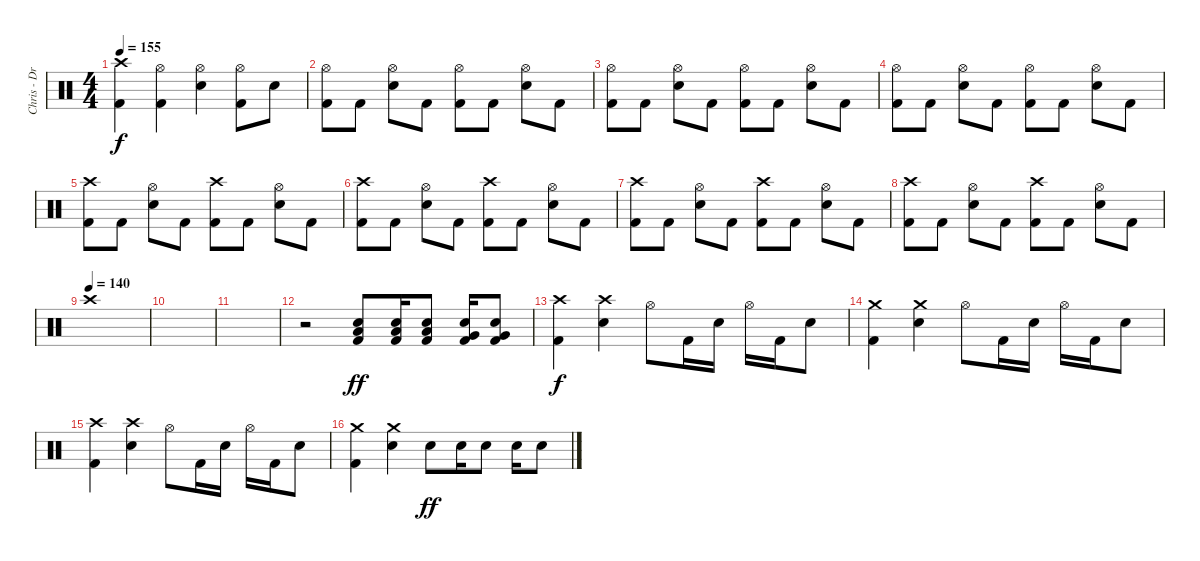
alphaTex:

\track ("Chris - Drums" "Chris - Dr") {instrument percussion}
\staff {score}
\articulation defaults
\ts (4 4)
\tempo 155
\clef neutral
\ks c
("Crash high (hit)" "Kick (hit) 2").4{dy f} ("Hi-Hat (open)" "Kick (hit) 2").4 ("Hi-Hat (open)" "Electric Snare (hit)").4 ("Hi-Hat (open)" "Kick (hit) 2").8 "Electric Snare (hit)".8 |
("Hi-Hat (open)" "Kick (hit) 2").8 "Kick (hit) 2".8 ("Hi-Hat (open)" "Electric Snare (hit)").8 "Kick (hit) 2".8 ("Hi-Hat (open)" "Kick (hit) 2").8 "Kick (hit) 2".8 ("Hi-Hat (open)" "Electric Snare (hit)").8 "Kick (hit) 2".8 |
("Hi-Hat (open)" "Kick (hit) 2").8 "Kick (hit) 2".8 ("Hi-Hat (open)" "Electric Snare (hit)").8 "Kick (hit) 2".8 ("Hi-Hat (open)" "Kick (hit) 2").8 "Kick (hit) 2".8 ("Hi-Hat (open)" "Electric Snare (hit)").8 "Kick (hit) 2".8 |
("Hi-Hat (open)" "Kick (hit) 2").8 "Kick (hit) 2".8 ("Hi-Hat (open)" "Electric Snare (hit)").8 "Kick (hit) 2".8 ("Hi-Hat (open)" "Kick (hit) 2").8 "Kick (hit) 2".8 ("Hi-Hat (open)" "Electric Snare (hit)").8 "Kick (hit) 2".8 |
("Crash high (hit)" "Kick (hit) 2").8 "Kick (hit) 2".8 ("Hi-Hat (open)" "Electric Snare (hit)").8 "Kick (hit) 2".8 ("Crash high (hit)" "Kick (hit) 2").8 "Kick (hit) 2".8 ("Hi-Hat (open)" "Electric Snare (hit)").8 "Kick (hit) 2".8 |
("Crash high (hit)" "Kick (hit) 2").8 "Kick (hit) 2".8 ("Hi-Hat (open)" "Electric Snare (hit)").8 "Kick (hit) 2".8 ("Crash high (hit)" "Kick (hit) 2").8 "Kick (hit) 2".8 ("Hi-Hat (open)" "Electric Snare (hit)").8 "Kick (hit) 2".8 |
("Crash high (hit)" "Kick (hit) 2").8 "Kick (hit) 2".8 ("Hi-Hat (open)" "Electric Snare (hit)").8 "Kick (hit) 2".8 ("Crash high (hit)" "Kick (hit) 2").8 "Kick (hit) 2".8 ("Hi-Hat (open)" "Electric Snare (hit)").8 "Kick (hit) 2".8 |
("Crash high (hit)" "Kick (hit) 2").8 "Kick (hit) 2".8 ("Hi-Hat (open)" "Electric Snare (hit)").8 "Kick (hit) 2".8 ("Crash high (hit)" "Kick (hit) 2").8 "Kick (hit) 2".8 ("Hi-Hat (open)" "Electric Snare (hit)").8 "Kick (hit) 2".8 |
\tempo (140)
"Crash high (hit)".1 |
|
|
r.2 ("Low Tom (hit)" "Electric Snare (hit)" "Kick (hit) 2").8{dy ff} ("Low Tom (hit)" "Electric Snare (hit)" "Kick (hit) 2").16 ("Low Tom (hit)" "Electric Snare (hit)" "Kick (hit) 2").8 ("Very Low Tom (hit)" "Electric Snare (hit)" "Kick (hit) 2").16 ("Very Low Tom (hit)" "Electric Snare (hit)" "Kick (hit) 2").8 |
("Crash high (hit)" "Kick (hit) 2").4{dy f} ("Crash high (hit)" "Electric Snare (hit)").4 "Hi-Hat (open)".8 "Kick (hit) 2".16 "Electric Snare (hit)".16 "Hi-Hat (open)".16 "Kick (hit) 2".16 "Electric Snare (hit)".8 |
("Crash medium (hit)" "Kick (hit) 2").4 ("Crash medium (hit)" "Electric Snare (hit)").4 "Hi-Hat (open)".8 "Kick (hit) 2".16 "Electric Snare (hit)".16 "Hi-Hat (open)".16 "Kick (hit) 2".16 "Electric Snare (hit)".8 |
("Crash high (hit)" "Kick (hit) 2").4 ("Crash high (hit)" "Electric Snare (hit)").4 "Hi-Hat (open)".8 "Kick (hit) 2".16 "Electric Snare (hit)".16 "Hi-Hat (open)".16 "Kick (hit) 2".16 "Electric Snare (hit)".8 |
("Crash medium (hit)" "Kick (hit) 2").4 ("Crash medium (hit)" "Electric Snare (hit)").4 "Electric Snare (hit)".8{dy ff} "Electric Snare (hit)".16 "Electric Snare (hit)".8 "Electric Snare (hit)".16 "Electric Snare (hit)".8
